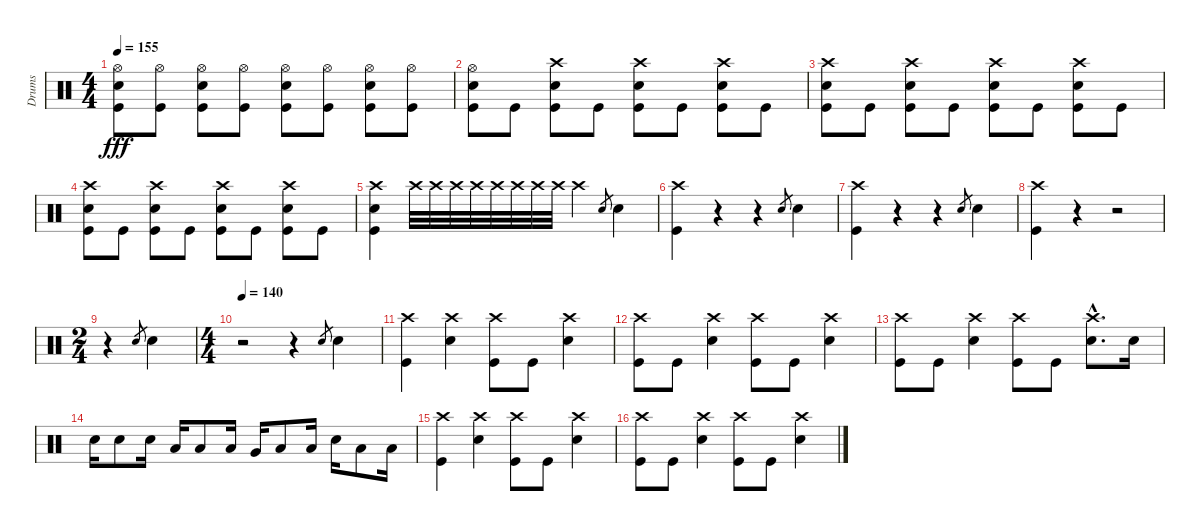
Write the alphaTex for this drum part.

\track ("Drums" "Drums") {instrument percussion}
\staff {score}
\articulation defaults
\ts (4 4)
\tempo 155
\clef neutral
\ks c
("Hi-Hat (open)" "Snare (hit) 2" "Kick (hit)").8{dy fff} ("Hi-Hat (open)" "Kick (hit)").8 ("Hi-Hat (open)" "Snare (hit) 2" "Kick (hit)").8 ("Hi-Hat (open)" "Kick (hit)").8 ("Hi-Hat (open)" "Snare (hit) 2" "Kick (hit)").8 ("Hi-Hat (open)" "Kick (hit)").8 ("Hi-Hat (open)" "Snare (hit) 2" "Kick (hit)").8 ("Hi-Hat (open)" "Kick (hit)").8 |
("Hi-Hat (open)" "Snare (hit) 2" "Kick (hit)").8 "Kick (hit)".8 ("Crash high (hit)" "Snare (hit) 2" "Kick (hit)").8 "Kick (hit)".8 ("Crash high (hit)" "Snare (hit) 2" "Kick (hit)").8 "Kick (hit)".8 ("Crash high (hit)" "Snare (hit) 2" "Kick (hit)").8 "Kick (hit)".8 |
("Crash high (hit)" "Snare (hit) 2" "Kick (hit)").8 "Kick (hit)".8 ("Crash high (hit)" "Snare (hit) 2" "Kick (hit)").8 "Kick (hit)".8 ("Crash high (hit)" "Snare (hit) 2" "Kick (hit)").8 "Kick (hit)".8 ("Crash high (hit)" "Snare (hit) 2" "Kick (hit)").8 "Kick (hit)".8 |
("Crash high (hit)" "Snare (hit) 2" "Kick (hit)").8 "Kick (hit)".8 ("Crash high (hit)" "Snare (hit) 2" "Kick (hit)").8 "Kick (hit)".8 ("Crash high (hit)" "Snare (hit) 2" "Kick (hit)").8 "Kick (hit)".8 ("Crash high (hit)" "Snare (hit) 2" "Kick (hit)").8 "Kick (hit)".8 |
("Crash high (hit)" "Snare (hit) 2" "Kick (hit)").4 "Crash high (hit)".32 "Crash high (hit)".32 "Crash high (hit)".32 "Crash high (hit)".32 "Crash high (hit)".32 "Crash high (hit)".32 "Crash high (hit)".32 "Crash high (hit)".32 "Crash high (hit)".4 "Snare (hit) 2".8{gr} "Snare (hit) 2".4 |
("Crash high (hit)" "Kick (hit)").4 r.4 r.4 "Snare (hit) 2".8{gr} "Snare (hit) 2".4 |
("Crash high (hit)" "Kick (hit)").4 r.4 r.4 "Snare (hit) 2".8{gr} "Snare (hit) 2".4 |
("Crash high (hit)" "Kick (hit)").4 r.4 r.2 |
\ts (2 4)
r.4 "Snare (hit) 2".8{gr} "Snare (hit) 2".4 |
\ts (4 4)
\tempo 140
r.2 r.4 "Snare (hit) 2".8{gr} "Snare (hit) 2".4 |
("Crash high (hit)" "Kick (hit)").4 ("Crash high (hit)" "Snare (hit) 2").4 ("Crash high (hit)" "Kick (hit)").8 "Kick (hit)".8 ("Crash high (hit)" "Snare (hit) 2").4 |
("Crash high (hit)" "Kick (hit)").8 "Kick (hit)".8 ("Crash high (hit)" "Snare (hit) 2").4 ("Crash high (hit)" "Kick (hit)").8 "Kick (hit)".8 ("Crash high (hit)" "Snare (hit) 2").4 |
("Crash high (hit)" "Kick (hit)").8 "Kick (hit)".8 ("Crash high (hit)" "Snare (hit) 2").4 ("Crash high (hit)" "Kick (hit)").8 "Kick (hit)".8 ("Crash high (hit)"{hac} "Snare (hit) 2"{hac}).8{d} "Snare (hit) 2".16 |
"Snare (hit) 2".16 "Snare (hit) 2".8 "Snare (hit) 2".16 "Low Tom (hit)".16 "Low Tom (hit)".8 "Low Tom (hit)".16 "Very Low Tom (hit)".16 "Low Tom (hit)".8 "Low Tom (hit)".16 "Snare (hit) 2".16 "Low Tom (hit)".8 "Low Tom (hit)".16 |
("Crash high (hit)" "Kick (hit)").4 ("Crash high (hit)" "Snare (hit) 2").4 ("Crash high (hit)" "Kick (hit)").8 "Kick (hit)".8 ("Crash high (hit)" "Snare (hit) 2").4 |
("Crash high (hit)" "Kick (hit)").8 "Kick (hit)".8 ("Crash high (hit)" "Snare (hit) 2").4 ("Crash high (hit)" "Kick (hit)").8 "Kick (hit)".8 ("Crash high (hit)" "Snare (hit) 2").4
